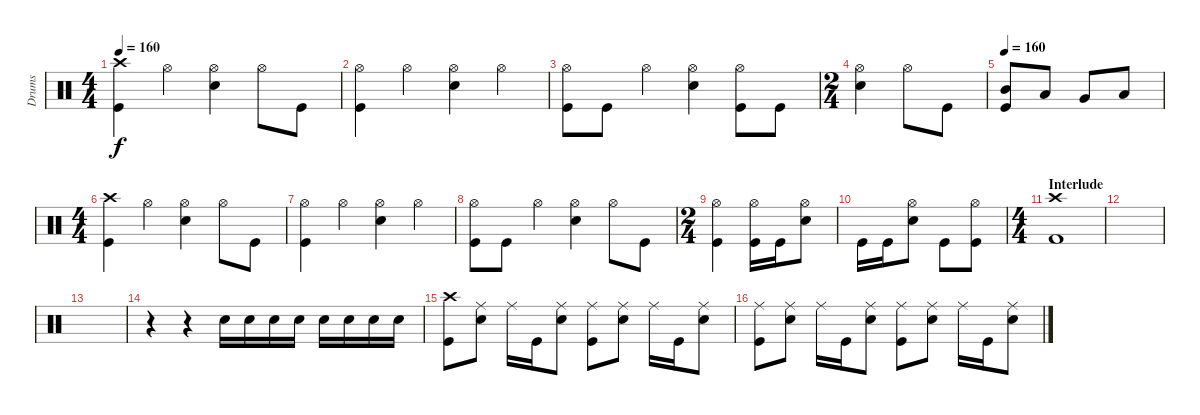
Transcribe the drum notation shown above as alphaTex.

\track ("Drums" "Drums") {instrument percussion}
\staff {score}
\articulation defaults
\ts (4 4)
\tempo 160
\clef neutral
\ks c
("Crash high (hit)" "Kick (hit)").4{dy f} "Hi-Hat (open)".4 ("Hi-Hat (open)" "Snare (hit) 2").4 "Hi-Hat (open)".8 "Kick (hit)".8 |
("Hi-Hat (open)" "Kick (hit)").4 "Hi-Hat (open)".4 ("Hi-Hat (open)" "Snare (hit) 2").4 "Hi-Hat (open)".4 |
("Hi-Hat (open)" "Kick (hit)").8 "Kick (hit)".8 "Hi-Hat (open)".4 ("Hi-Hat (open)" "Snare (hit) 2").4 ("Hi-Hat (open)" "Kick (hit)").8 "Kick (hit)".8 |
\ts (2 4)
("Hi-Hat (open)" "Snare (hit) 2").4 "Hi-Hat (open)".8 "Kick (hit)".8 |
\tempo 160
("Mid Tom (hit)" "Kick (hit)").8 "Low Tom (hit)".8 "Very Low Tom (hit)".8 "Low Floor Tom (hit)".8 |
\ts (4 4)
("Crash high (hit)" "Kick (hit)").4 "Hi-Hat (open)".4 ("Hi-Hat (open)" "Snare (hit) 2").4 "Hi-Hat (open)".8 "Kick (hit)".8 |
("Hi-Hat (open)" "Kick (hit)").4 "Hi-Hat (open)".4 ("Hi-Hat (open)" "Snare (hit) 2").4 "Hi-Hat (open)".4 |
("Hi-Hat (open)" "Kick (hit)").8 "Kick (hit)".8 "Hi-Hat (open)".4 ("Hi-Hat (open)" "Snare (hit) 2").4 "Hi-Hat (open)".8 "Kick (hit)".8 |
\ts (2 4)
("Hi-Hat (open)" "Kick (hit)").4 ("Hi-Hat (open)" "Kick (hit)").16 "Kick (hit)".16 ("Hi-Hat (open)" "Snare (hit) 2").8 |
"Kick (hit)".16 "Kick (hit)".16 ("Hi-Hat (open)" "Snare (hit) 2").8 "Kick (hit)".8 ("Hi-Hat (open)" "Kick (hit)").8 |
\ts (4 4)
\section ("" "Interlude")
("Crash high (hit)" "Kick (hit) 2").1 |
|
|
r.4 r.4 "Snare (hit) 2".16 "Snare (hit) 2".16 "Snare (hit) 2".16 "Snare (hit) 2".16 "Snare (hit) 2".16 "Snare (hit) 2".16 "Snare (hit) 2".16 "Snare (hit) 2".16 |
("Crash high (hit)" "Kick (hit)").8 ("Ride (middle)" "Snare (hit) 2").8 "Ride (middle)".16 "Kick (hit)".16 ("Ride (middle)" "Snare (hit) 2").8 ("Ride (middle)" "Kick (hit)").8 ("Ride (middle)" "Snare (hit) 2").8 "Ride (middle)".16 "Kick (hit)".16 ("Ride (middle)" "Snare (hit) 2").8 |
("Ride (middle)" "Kick (hit)").8 ("Ride (middle)" "Snare (hit) 2").8 "Ride (middle)".16 "Kick (hit)".16 ("Ride (middle)" "Snare (hit) 2").8 ("Ride (middle)" "Kick (hit)").8 ("Ride (middle)" "Snare (hit) 2").8 "Ride (middle)".16 "Kick (hit)".16 ("Ride (middle)" "Snare (hit) 2").8
